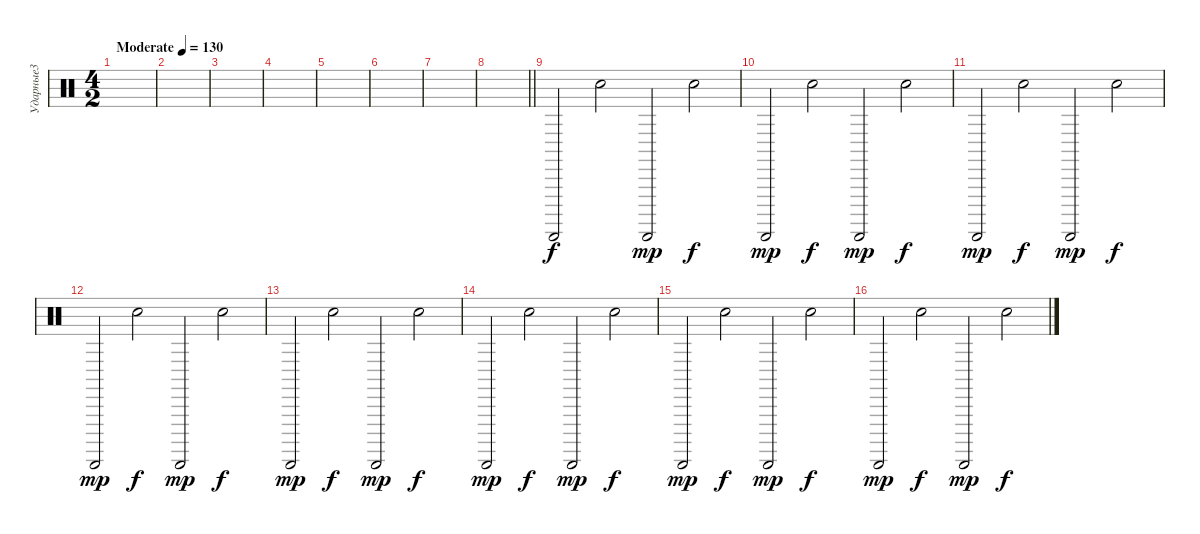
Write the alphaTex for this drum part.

\track ("Ударные3" "Ударные3") {instrument percussion}
\staff {score}
\articulation defaults
\ts (4 2)
\tempo (130 "Moderate")
\clef neutral
\ks c
|
|
|
|
|
|
|
\barLineRight lightlight
|
"Guiro (scrap-return)".2 "Hand Clap (hit)".2{dy f} "Guiro (scrap-return)".2{dy mp} "Hand Clap (hit)".2{dy f} |
"Guiro (scrap-return)".2{dy mp} "Hand Clap (hit)".2{dy f} "Guiro (scrap-return)".2{dy mp} "Hand Clap (hit)".2{dy f} |
"Guiro (scrap-return)".2{dy mp} "Hand Clap (hit)".2{dy f} "Guiro (scrap-return)".2{dy mp} "Hand Clap (hit)".2{dy f} |
"Guiro (scrap-return)".2{dy mp} "Hand Clap (hit)".2{dy f} "Guiro (scrap-return)".2{dy mp} "Hand Clap (hit)".2{dy f} |
"Guiro (scrap-return)".2{dy mp} "Hand Clap (hit)".2{dy f} "Guiro (scrap-return)".2{dy mp} "Hand Clap (hit)".2{dy f} |
"Guiro (scrap-return)".2{dy mp} "Hand Clap (hit)".2{dy f} "Guiro (scrap-return)".2{dy mp} "Hand Clap (hit)".2{dy f} |
"Guiro (scrap-return)".2{dy mp} "Hand Clap (hit)".2{dy f} "Guiro (scrap-return)".2{dy mp} "Hand Clap (hit)".2{dy f} |
"Guiro (scrap-return)".2{dy mp} "Hand Clap (hit)".2{dy f} "Guiro (scrap-return)".2{dy mp} "Hand Clap (hit)".2{dy f}
